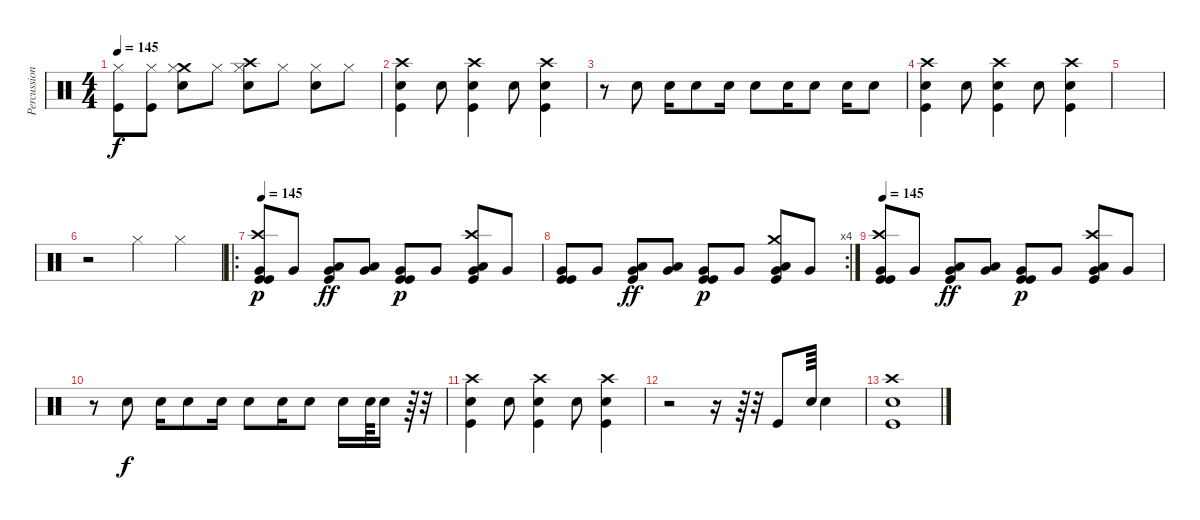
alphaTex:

\track ("Percussions" "Percussion") {instrument percussion}
\staff {score}
\articulation defaults
\ts (4 4)
\tempo 145
\clef neutral
\ks c
("Kick (hit)" "Hi-Hat (closed)").8{dy f} ("Kick (hit)" "Hi-Hat (closed)").8 ("Crash medium (hit)" "Snare (hit) 2" "Hi-Hat (closed)").8 "Hi-Hat (closed)".8 ("Crash high (hit)" "Snare (hit) 2" "Hi-Hat (closed)").8 "Hi-Hat (closed)".8 ("Snare (hit) 2" "Hi-Hat (closed)").8 "Hi-Hat (closed)".8 |
("Kick (hit)" "Snare (hit) 2" "Crash high (hit)").4 "Snare (hit) 2".8 ("Kick (hit)" "Snare (hit) 2" "Crash high (hit)").4 "Snare (hit) 2".8 ("Kick (hit)" "Snare (hit) 2" "Crash high (hit)").4 |
r.8 "Snare (hit) 2".8 "Snare (hit) 2".16 "Snare (hit) 2".8 "Snare (hit) 2".16 "Snare (hit) 2".8 "Snare (hit) 2".16 "Snare (hit) 2".8 "Snare (hit) 2".16 "Snare (hit) 2".8 |
("Kick (hit)" "Snare (hit) 2" "Crash high (hit)").4 "Snare (hit) 2".8 ("Kick (hit)" "Snare (hit) 2" "Crash high (hit)").4 "Snare (hit) 2".8 ("Kick (hit)" "Snare (hit) 2" "Crash high (hit)").4 |
|
r.2 "Hi-Hat (closed)".4 "Hi-Hat (closed)".4 |
\ro
\tempo 145
("Very Low Tom (hit)" "Kick (hit)" "Kick (hit)" "Crash high (hit)").8{dy p} "Very Low Tom (hit)".8 ("Very Low Tom (hit)" "Kick (hit)" "Low Tom (hit)").8{dy ff} ("Very Low Tom (hit)" "Low Tom (hit)").8 ("Very Low Tom (hit)" "Kick (hit)" "Kick (hit)").8{dy p} "Very Low Tom (hit)".8 ("Very Low Tom (hit)" "Kick (hit)" "Low Tom (hit)" "Crash high (hit)").8 "Very Low Tom (hit)".8 |
\rc 4
("Very Low Tom (hit)" "Kick (hit)" "Kick (hit)").8 "Very Low Tom (hit)".8 ("Very Low Tom (hit)" "Kick (hit)" "Low Tom (hit)").8{dy ff} ("Very Low Tom (hit)" "Low Tom (hit)").8 ("Very Low Tom (hit)" "Kick (hit)" "Kick (hit)").8{dy p} "Very Low Tom (hit)".8 ("Very Low Tom (hit)" "Kick (hit)" "Low Tom (hit)" "Crash medium (hit)").8 "Very Low Tom (hit)".8 |
\tempo 145
("Very Low Tom (hit)" "Kick (hit)" "Kick (hit)" "Crash high (hit)").8 "Very Low Tom (hit)".8 ("Very Low Tom (hit)" "Kick (hit)" "Low Tom (hit)").8{dy ff} ("Very Low Tom (hit)" "Low Tom (hit)").8 ("Very Low Tom (hit)" "Kick (hit)" "Kick (hit)").8{dy p} "Very Low Tom (hit)".8 ("Very Low Tom (hit)" "Kick (hit)" "Low Tom (hit)" "Crash high (hit)").8 "Very Low Tom (hit)".8 |
r.8 "Snare (hit) 2".8{dy f} "Snare (hit) 2".16 "Snare (hit) 2".8 "Snare (hit) 2".16 "Snare (hit) 2".8 "Snare (hit) 2".16 "Snare (hit) 2".8 "Snare (hit) 2".16 "Snare (hit) 2".64 "Snare (hit) 2".16 r.64 r.32 |
("Kick (hit)" "Snare (hit) 2" "Crash high (hit)").4 "Snare (hit) 2".8 ("Kick (hit)" "Snare (hit) 2" "Crash high (hit)").4 "Snare (hit) 2".8 ("Kick (hit)" "Snare (hit) 2" "Crash high (hit)").4 |
r.2 r.16 r.64 r.32 "Kick (hit)".8 "Snare (hit) 2".64 "Snare (hit) 2".4 |
("Crash high (hit)" "Snare (hit) 2" "Kick (hit)").1
